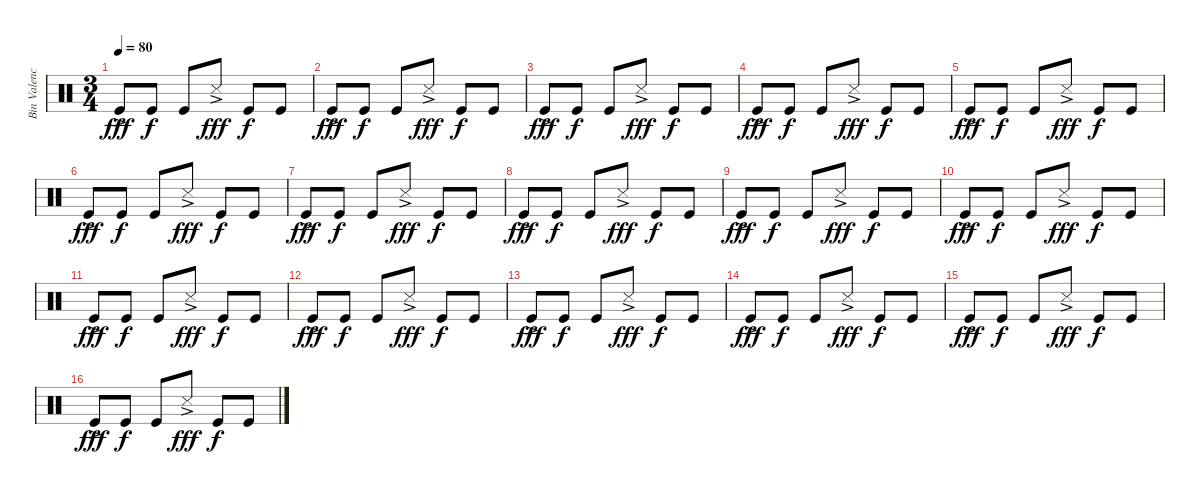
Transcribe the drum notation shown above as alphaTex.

\track ("Bin Valencia- Bombo de Cuero" "Bin Valenc") {instrument percussion}
\staff {score}
\articulation defaults
\ts (3 4)
\tempo 80
\clef neutral
\ks c "Kick (hit)"{ac}.8{dy fff} "Kick (hit)".8{dy f} "Kick (hit)".8 "Snare (side stick) 3"{ac}.8{dy fff} "Kick (hit)".8{dy f} "Kick (hit)".8
|
"Kick (hit)"{ac}.8{dy fff} "Kick (hit)".8{dy f} "Kick (hit)".8 "Snare (side stick) 3"{ac}.8{dy fff} "Kick (hit)".8{dy f} "Kick (hit)".8 |
"Kick (hit)"{ac}.8{dy fff} "Kick (hit)".8{dy f} "Kick (hit)".8 "Snare (side stick) 3"{ac}.8{dy fff} "Kick (hit)".8{dy f} "Kick (hit)".8 |
"Kick (hit)"{ac}.8{dy fff} "Kick (hit)".8{dy f} "Kick (hit)".8 "Snare (side stick) 3"{ac}.8{dy fff} "Kick (hit)".8{dy f} "Kick (hit)".8 |
"Kick (hit)"{ac}.8{dy fff} "Kick (hit)".8{dy f} "Kick (hit)".8 "Snare (side stick) 3"{ac}.8{dy fff} "Kick (hit)".8{dy f} "Kick (hit)".8 |
"Kick (hit)"{ac}.8{dy fff} "Kick (hit)".8{dy f} "Kick (hit)".8 "Snare (side stick) 3"{ac}.8{dy fff} "Kick (hit)".8{dy f} "Kick (hit)".8 |
"Kick (hit)"{ac}.8{dy fff} "Kick (hit)".8{dy f} "Kick (hit)".8 "Snare (side stick) 3"{ac}.8{dy fff} "Kick (hit)".8{dy f} "Kick (hit)".8 |
"Kick (hit)"{ac}.8{dy fff} "Kick (hit)".8{dy f} "Kick (hit)".8 "Snare (side stick) 3"{ac}.8{dy fff} "Kick (hit)".8{dy f} "Kick (hit)".8 |
"Kick (hit)"{ac}.8{dy fff} "Kick (hit)".8{dy f} "Kick (hit)".8 "Snare (side stick) 3"{ac}.8{dy fff} "Kick (hit)".8{dy f} "Kick (hit)".8 |
"Kick (hit)"{ac}.8{dy fff} "Kick (hit)".8{dy f} "Kick (hit)".8 "Snare (side stick) 3"{ac}.8{dy fff} "Kick (hit)".8{dy f} "Kick (hit)".8 |
"Kick (hit)"{ac}.8{dy fff} "Kick (hit)".8{dy f} "Kick (hit)".8 "Snare (side stick) 3"{ac}.8{dy fff} "Kick (hit)".8{dy f} "Kick (hit)".8 |
"Kick (hit)"{ac}.8{dy fff} "Kick (hit)".8{dy f} "Kick (hit)".8 "Snare (side stick) 3"{ac}.8{dy fff} "Kick (hit)".8{dy f} "Kick (hit)".8 |
"Kick (hit)"{ac}.8{dy fff} "Kick (hit)".8{dy f} "Kick (hit)".8 "Snare (side stick) 3"{ac}.8{dy fff} "Kick (hit)".8{dy f} "Kick (hit)".8 |
"Kick (hit)"{ac}.8{dy fff} "Kick (hit)".8{dy f} "Kick (hit)".8 "Snare (side stick) 3"{ac}.8{dy fff} "Kick (hit)".8{dy f} "Kick (hit)".8 |
"Kick (hit)"{ac}.8{dy fff} "Kick (hit)".8{dy f} "Kick (hit)".8 "Snare (side stick) 3"{ac}.8{dy fff} "Kick (hit)".8{dy f} "Kick (hit)".8 |
"Kick (hit)"{ac}.8{dy fff} "Kick (hit)".8{dy f} "Kick (hit)".8 "Snare (side stick) 3"{ac}.8{dy fff} "Kick (hit)".8{dy f} "Kick (hit)".8
